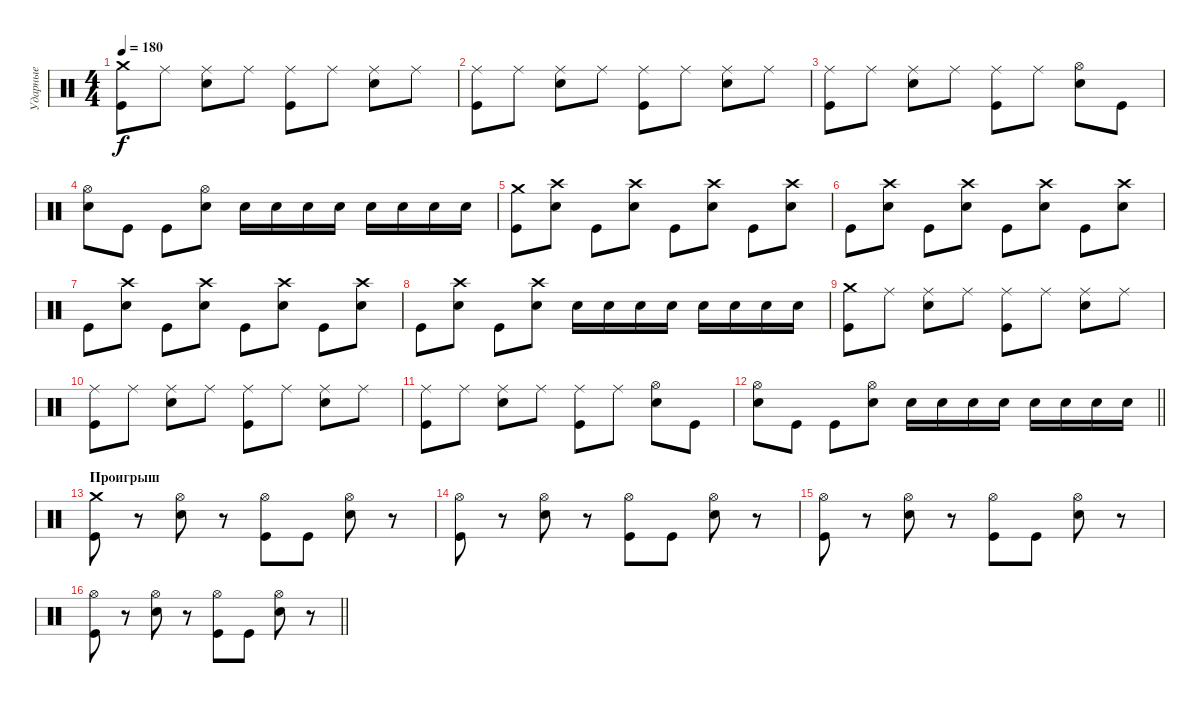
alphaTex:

\track ("Ударные" "Ударные") {instrument percussion}
\staff {score}
\articulation defaults
\ts (4 4)
\tempo 180
\clef neutral
\ks c
("Crash medium (hit)" "Kick (hit)").8{dy f} "Ride (middle)".8 ("Ride (middle)" "Electric Snare (hit)").8 "Ride (middle)".8 ("Ride (middle)" "Kick (hit)").8 "Ride (middle)".8 ("Ride (middle)" "Electric Snare (hit)").8 "Ride (middle)".8 |
("Ride (middle)" "Kick (hit)").8 "Ride (middle)".8 ("Ride (middle)" "Electric Snare (hit)").8 "Ride (middle)".8 ("Ride (middle)" "Kick (hit)").8 "Ride (middle)".8 ("Ride (middle)" "Electric Snare (hit)").8 "Ride (middle)".8 |
("Ride (middle)" "Kick (hit)").8 "Ride (middle)".8 ("Ride (middle)" "Electric Snare (hit)").8 "Ride (middle)".8 ("Ride (middle)" "Kick (hit)").8 "Ride (middle)".8 ("Electric Snare (hit)" "Hi-Hat (open)").8 "Kick (hit)".8 |
("Electric Snare (hit)" "Hi-Hat (open)").8 "Kick (hit)".8 "Kick (hit)".8 ("Electric Snare (hit)" "Hi-Hat (open)").8 "Electric Snare (hit)".16 "Electric Snare (hit)".16 "Electric Snare (hit)".16 "Electric Snare (hit)".16 "Electric Snare (hit)".16 "Electric Snare (hit)".16 "Electric Snare (hit)".16 "Electric Snare (hit)".16 |
("Crash medium (hit)" "Kick (hit)").8 ("Crash high (hit)" "Electric Snare (hit)").8 "Kick (hit)".8 ("Crash high (hit)" "Electric Snare (hit)").8 "Kick (hit)".8 ("Crash high (hit)" "Electric Snare (hit)").8 "Kick (hit)".8 ("Crash high (hit)" "Electric Snare (hit)").8 |
"Kick (hit)".8 ("Crash high (hit)" "Electric Snare (hit)").8 "Kick (hit)".8 ("Crash high (hit)" "Electric Snare (hit)").8 "Kick (hit)".8 ("Crash high (hit)" "Electric Snare (hit)").8 "Kick (hit)".8 ("Crash high (hit)" "Electric Snare (hit)").8 |
"Kick (hit)".8 ("Crash high (hit)" "Electric Snare (hit)").8 "Kick (hit)".8 ("Crash high (hit)" "Electric Snare (hit)").8 "Kick (hit)".8 ("Crash high (hit)" "Electric Snare (hit)").8 "Kick (hit)".8 ("Crash high (hit)" "Electric Snare (hit)").8 |
"Kick (hit)".8 ("Crash high (hit)" "Electric Snare (hit)").8 "Kick (hit)".8 ("Crash high (hit)" "Electric Snare (hit)").8 "Electric Snare (hit)".16 "Electric Snare (hit)".16 "Electric Snare (hit)".16 "Electric Snare (hit)".16 "Electric Snare (hit)".16 "Electric Snare (hit)".16 "Electric Snare (hit)".16 "Electric Snare (hit)".16 |
("Crash medium (hit)" "Kick (hit)").8 "Ride (middle)".8 ("Ride (middle)" "Electric Snare (hit)").8 "Ride (middle)".8 ("Ride (middle)" "Kick (hit)").8 "Ride (middle)".8 ("Ride (middle)" "Electric Snare (hit)").8 "Ride (middle)".8 |
("Ride (middle)" "Kick (hit)").8 "Ride (middle)".8 ("Ride (middle)" "Electric Snare (hit)").8 "Ride (middle)".8 ("Ride (middle)" "Kick (hit)").8 "Ride (middle)".8 ("Ride (middle)" "Electric Snare (hit)").8 "Ride (middle)".8 |
("Ride (middle)" "Kick (hit)").8 "Ride (middle)".8 ("Ride (middle)" "Electric Snare (hit)").8 "Ride (middle)".8 ("Ride (middle)" "Kick (hit)").8 "Ride (middle)".8 ("Electric Snare (hit)" "Hi-Hat (open)").8 "Kick (hit)".8 |
\barLineRight lightlight
("Electric Snare (hit)" "Hi-Hat (open)").8 "Kick (hit)".8 "Kick (hit)".8 ("Electric Snare (hit)" "Hi-Hat (open)").8 "Electric Snare (hit)".16 "Electric Snare (hit)".16 "Electric Snare (hit)".16 "Electric Snare (hit)".16 "Electric Snare (hit)".16 "Electric Snare (hit)".16 "Electric Snare (hit)".16 "Electric Snare (hit)".16 |
\section ("" "Проигрыш")
("Crash medium (hit)" "Kick (hit)").8 r.8 ("Hi-Hat (open)" "Electric Snare (hit)").8 r.8 ("Hi-Hat (open)" "Kick (hit)").8 "Kick (hit)".8 ("Hi-Hat (open)" "Electric Snare (hit)").8 r.8 |
("Hi-Hat (open)" "Kick (hit)").8 r.8 ("Hi-Hat (open)" "Electric Snare (hit)").8 r.8 ("Hi-Hat (open)" "Kick (hit)").8 "Kick (hit)".8 ("Hi-Hat (open)" "Electric Snare (hit)").8 r.8 |
("Hi-Hat (open)" "Kick (hit)").8 r.8 ("Hi-Hat (open)" "Electric Snare (hit)").8 r.8 ("Hi-Hat (open)" "Kick (hit)").8 "Kick (hit)".8 ("Hi-Hat (open)" "Electric Snare (hit)").8 r.8 |
\barLineRight lightlight
("Hi-Hat (open)" "Kick (hit)").8 r.8 ("Hi-Hat (open)" "Electric Snare (hit)").8 r.8 ("Hi-Hat (open)" "Kick (hit)").8 "Kick (hit)".8 ("Hi-Hat (open)" "Electric Snare (hit)").8 r.8
